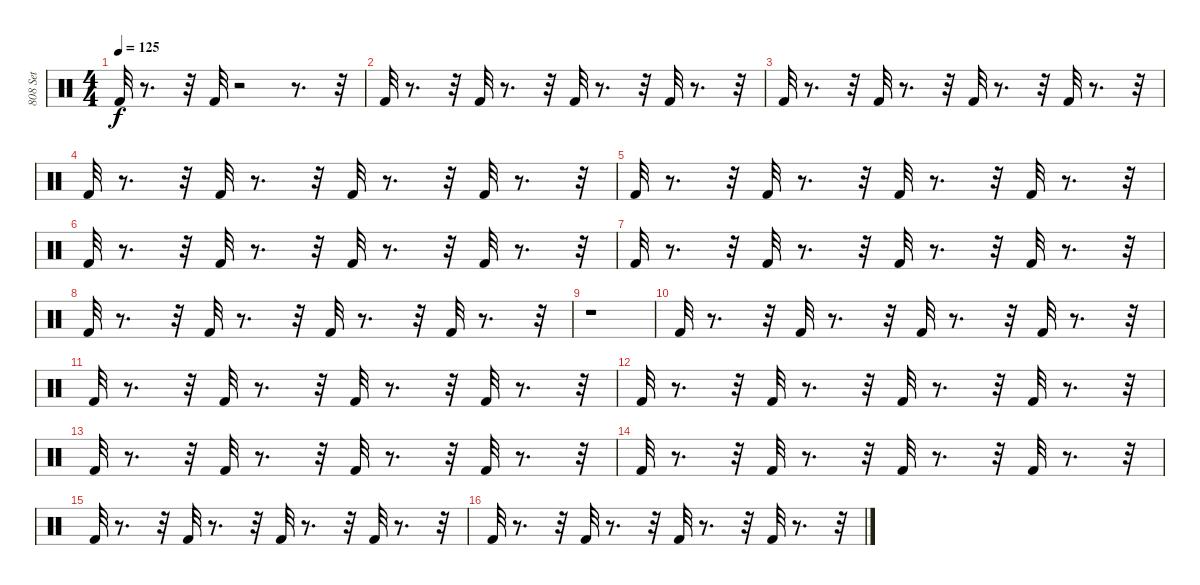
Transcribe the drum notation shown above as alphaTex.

\track ("808 Set" "808 Set") {instrument percussion}
\staff {score}
\articulation defaults
\ts (4 4)
\tempo 125
\clef neutral
\ks c "Kick (hit) 2".32{dy f}
r.8{d} r.32 "Kick (hit) 2".32 r.2 r.8{d} r.32 |
"Kick (hit) 2".32 r.8{d} r.32 "Kick (hit) 2".32 r.8{d} r.32 "Kick (hit) 2".32 r.8{d} r.32 "Kick (hit) 2".32 r.8{d} r.32 |
"Kick (hit) 2".32 r.8{d} r.32 "Kick (hit) 2".32 r.8{d} r.32 "Kick (hit) 2".32 r.8{d} r.32 "Kick (hit) 2".32 r.8{d} r.32 |
"Kick (hit) 2".32 r.8{d} r.32 "Kick (hit) 2".32 r.8{d} r.32 "Kick (hit) 2".32 r.8{d} r.32 "Kick (hit) 2".32 r.8{d} r.32 |
"Kick (hit) 2".32 r.8{d} r.32 "Kick (hit) 2".32 r.8{d} r.32 "Kick (hit) 2".32 r.8{d} r.32 "Kick (hit) 2".32 r.8{d} r.32 |
"Kick (hit) 2".32 r.8{d} r.32 "Kick (hit) 2".32 r.8{d} r.32 "Kick (hit) 2".32 r.8{d} r.32 "Kick (hit) 2".32 r.8{d} r.32 |
"Kick (hit) 2".32 r.8{d} r.32 "Kick (hit) 2".32 r.8{d} r.32 "Kick (hit) 2".32 r.8{d} r.32 "Kick (hit) 2".32 r.8{d} r.32 |
"Kick (hit) 2".32 r.8{d} r.32 "Kick (hit) 2".32 r.8{d} r.32 "Kick (hit) 2".32 r.8{d} r.32 "Kick (hit) 2".32 r.8{d} r.32 |
r.1 |
"Kick (hit) 2".32 r.8{d} r.32 "Kick (hit) 2".32 r.8{d} r.32 "Kick (hit) 2".32 r.8{d} r.32 "Kick (hit) 2".32 r.8{d} r.32 |
"Kick (hit) 2".32 r.8{d} r.32 "Kick (hit) 2".32 r.8{d} r.32 "Kick (hit) 2".32 r.8{d} r.32 "Kick (hit) 2".32 r.8{d} r.32 |
"Kick (hit) 2".32 r.8{d} r.32 "Kick (hit) 2".32 r.8{d} r.32 "Kick (hit) 2".32 r.8{d} r.32 "Kick (hit) 2".32 r.8{d} r.32 |
"Kick (hit) 2".32 r.8{d} r.32 "Kick (hit) 2".32 r.8{d} r.32 "Kick (hit) 2".32 r.8{d} r.32 "Kick (hit) 2".32 r.8{d} r.32 |
"Kick (hit) 2".32 r.8{d} r.32 "Kick (hit) 2".32 r.8{d} r.32 "Kick (hit) 2".32 r.8{d} r.32 "Kick (hit) 2".32 r.8{d} r.32 |
"Kick (hit) 2".32 r.8{d} r.32 "Kick (hit) 2".32 r.8{d} r.32 "Kick (hit) 2".32 r.8{d} r.32 "Kick (hit) 2".32 r.8{d} r.32 |
"Kick (hit) 2".32 r.8{d} r.32 "Kick (hit) 2".32 r.8{d} r.32 "Kick (hit) 2".32 r.8{d} r.32 "Kick (hit) 2".32 r.8{d} r.32
